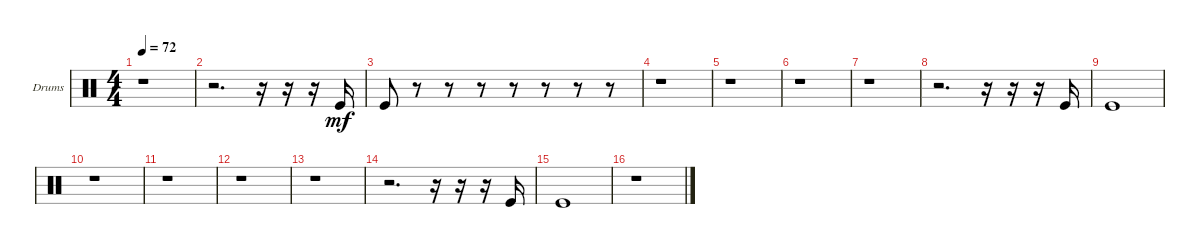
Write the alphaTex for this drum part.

\defaultSystemsLayout 4
\bracketExtendMode groupsimilarinstruments
\firstSystemTrackNameOrientation horizontal
\otherSystemsTrackNameOrientation horizontal
\track ("Drumkit" "Drums") {instrument percussion}
\staff {score}
\articulation defaults
\ts (4 4)
\tempo 72
\clef neutral
\scale
0.333333
\ks c
r.1{dy mf} |
\scale
0.333333 r.2{d} r.16 r.16 r.16 "Kick (hit)".16 |
\scale
0.333333 "Kick (hit)".8 r.8 r.8 r.8 r.8 r.8 r.8 r.8 |
\scale
0.333333 r.1 |
\scale
0.333333 r.1 |
\scale
0.333333 r.1 |
\scale
0.333333 r.1 |
\scale
0.333333 r.2{d} r.16 r.16 r.16 "Kick (hit)".16 |
\scale
0.333333 "Kick (hit)".1 |
\scale
0.333333 r.1 |
\scale
0.333333 r.1 |
r.1 |
r.1 |
r.2{d} r.16 r.16 r.16 "Kick (hit)".16 |
"Kick (hit)".1 |
r.1
